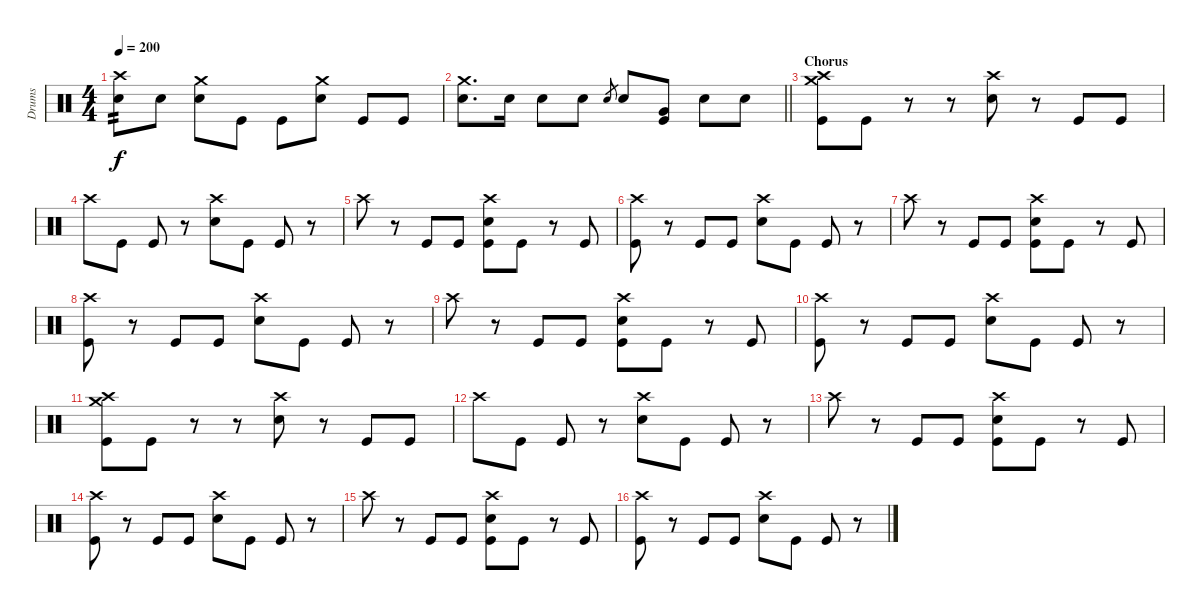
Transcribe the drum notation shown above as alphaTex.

\track ("Drums" "Drums") {instrument percussion}
\staff {score}
\articulation defaults
\ts (4 4)
\tempo 200
\clef neutral
\ks c
("Crash high (hit)" "Electric Snare (hit)").8{tp 2 dy f} "Electric Snare (hit)".8 ("Crash medium (hit)" "Electric Snare (hit)").8 "Kick (hit)".8 "Kick (hit)".8 ("Crash medium (hit)" "Electric Snare (hit)").8 "Kick (hit)".8 "Kick (hit)".8 |
\barLineRight lightlight
("Crash medium (hit)" "Electric Snare (hit)").8{d} "Electric Snare (hit)".16 "Electric Snare (hit)".8 "Electric Snare (hit)".8 "Electric Snare (hit)".8{gr} "Electric Snare (hit)".8 ("Very Low Tom (hit)" "Kick (hit)").8 "Electric Snare (hit)".8 "Electric Snare (hit)".8 |
\section ("" "Chorus")
("Crash high (hit)" "Crash medium (hit)" "Kick (hit)").8 "Kick (hit)".8 r.8 r.8 ("Crash high (hit)" "Electric Snare (hit)").8 r.8 "Kick (hit)".8 "Kick (hit)".8 |
"Crash high (hit)".8 "Kick (hit)".8 "Kick (hit)".8 r.8 ("Crash high (hit)" "Electric Snare (hit)").8 "Kick (hit)".8 "Kick (hit)".8 r.8 |
"Crash high (hit)".8 r.8 "Kick (hit)".8 "Kick (hit)".8 ("Crash high (hit)" "Electric Snare (hit)" "Kick (hit)").8 "Kick (hit)".8 r.8 "Kick (hit)".8 |
("Crash high (hit)" "Kick (hit)").8 r.8 "Kick (hit)".8 "Kick (hit)".8 ("Crash high (hit)" "Electric Snare (hit)").8 "Kick (hit)".8 "Kick (hit)".8 r.8 |
"Crash high (hit)".8 r.8 "Kick (hit)".8 "Kick (hit)".8 ("Crash high (hit)" "Electric Snare (hit)" "Kick (hit)").8 "Kick (hit)".8 r.8 "Kick (hit)".8 |
("Crash high (hit)" "Kick (hit)").8 r.8 "Kick (hit)".8 "Kick (hit)".8 ("Crash high (hit)" "Electric Snare (hit)").8 "Kick (hit)".8 "Kick (hit)".8 r.8 |
"Crash high (hit)".8 r.8 "Kick (hit)".8 "Kick (hit)".8 ("Crash high (hit)" "Electric Snare (hit)" "Kick (hit)").8 "Kick (hit)".8 r.8 "Kick (hit)".8 |
("Crash high (hit)" "Kick (hit)").8 r.8 "Kick (hit)".8 "Kick (hit)".8 ("Crash high (hit)" "Electric Snare (hit)").8 "Kick (hit)".8 "Kick (hit)".8 r.8 |
("Crash high (hit)" "Crash medium (hit)" "Kick (hit)").8 "Kick (hit)".8 r.8 r.8 ("Crash high (hit)" "Electric Snare (hit)").8 r.8 "Kick (hit)".8 "Kick (hit)".8 |
"Crash high (hit)".8 "Kick (hit)".8 "Kick (hit)".8 r.8 ("Crash high (hit)" "Electric Snare (hit)").8 "Kick (hit)".8 "Kick (hit)".8 r.8 |
"Crash high (hit)".8 r.8 "Kick (hit)".8 "Kick (hit)".8 ("Crash high (hit)" "Electric Snare (hit)" "Kick (hit)").8 "Kick (hit)".8 r.8 "Kick (hit)".8 |
("Crash high (hit)" "Kick (hit)").8 r.8 "Kick (hit)".8 "Kick (hit)".8 ("Crash high (hit)" "Electric Snare (hit)").8 "Kick (hit)".8 "Kick (hit)".8 r.8 |
"Crash high (hit)".8 r.8 "Kick (hit)".8 "Kick (hit)".8 ("Crash high (hit)" "Electric Snare (hit)" "Kick (hit)").8 "Kick (hit)".8 r.8 "Kick (hit)".8 |
("Crash high (hit)" "Kick (hit)").8 r.8 "Kick (hit)".8 "Kick (hit)".8 ("Crash high (hit)" "Electric Snare (hit)").8 "Kick (hit)".8 "Kick (hit)".8 r.8
